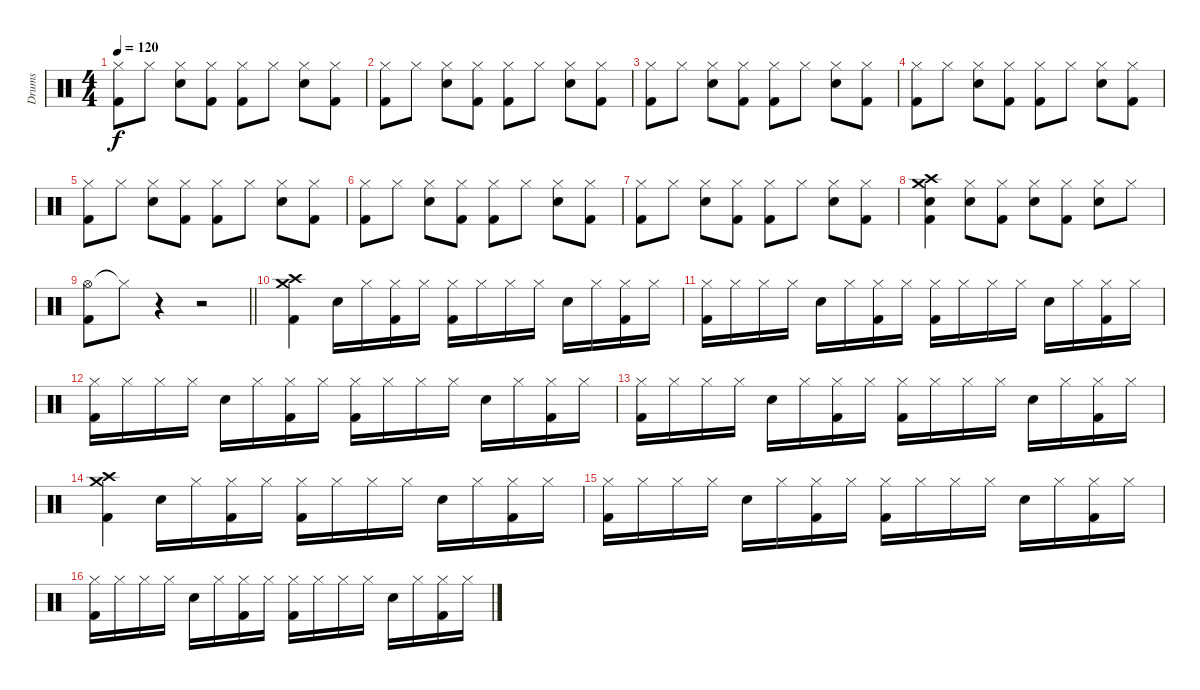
\track ("Drums" "Drums") {instrument percussion}
\staff {score}
\articulation defaults
\ts (4 4)
\tempo 120
\clef neutral
\ks c
("Hi-Hat (closed)" "Kick (hit) 2").8{dy f} "Hi-Hat (closed)".8 ("Hi-Hat (closed)" "Snare (hit) 2").8 ("Hi-Hat (closed)" "Kick (hit) 2").8 ("Hi-Hat (closed)" "Kick (hit) 2").8 "Hi-Hat (closed)".8 ("Hi-Hat (closed)" "Snare (hit) 2").8 ("Hi-Hat (closed)" "Kick (hit) 2").8 |
("Hi-Hat (closed)" "Kick (hit) 2").8 "Hi-Hat (closed)".8 ("Hi-Hat (closed)" "Snare (hit) 2").8 ("Hi-Hat (closed)" "Kick (hit) 2").8 ("Hi-Hat (closed)" "Kick (hit) 2").8 "Hi-Hat (closed)".8 ("Hi-Hat (closed)" "Snare (hit) 2").8 ("Hi-Hat (closed)" "Kick (hit) 2").8 |
("Hi-Hat (closed)" "Kick (hit) 2").8 "Hi-Hat (closed)".8 ("Hi-Hat (closed)" "Snare (hit) 2").8 ("Hi-Hat (closed)" "Kick (hit) 2").8 ("Hi-Hat (closed)" "Kick (hit) 2").8 "Hi-Hat (closed)".8 ("Hi-Hat (closed)" "Snare (hit) 2").8 ("Hi-Hat (closed)" "Kick (hit) 2").8 |
("Hi-Hat (closed)" "Kick (hit) 2").8 "Hi-Hat (closed)".8 ("Hi-Hat (closed)" "Snare (hit) 2").8 ("Hi-Hat (closed)" "Kick (hit) 2").8 ("Hi-Hat (closed)" "Kick (hit) 2").8 "Hi-Hat (closed)".8 ("Hi-Hat (closed)" "Snare (hit) 2").8 ("Hi-Hat (closed)" "Kick (hit) 2").8 |
("Hi-Hat (closed)" "Kick (hit) 2").8 "Hi-Hat (closed)".8 ("Hi-Hat (closed)" "Snare (hit) 2").8 ("Hi-Hat (closed)" "Kick (hit) 2").8 ("Hi-Hat (closed)" "Kick (hit) 2").8 "Hi-Hat (closed)".8 ("Hi-Hat (closed)" "Snare (hit) 2").8 ("Hi-Hat (closed)" "Kick (hit) 2").8 |
("Hi-Hat (closed)" "Kick (hit) 2").8 "Hi-Hat (closed)".8 ("Hi-Hat (closed)" "Snare (hit) 2").8 ("Hi-Hat (closed)" "Kick (hit) 2").8 ("Hi-Hat (closed)" "Kick (hit) 2").8 "Hi-Hat (closed)".8 ("Hi-Hat (closed)" "Snare (hit) 2").8 ("Hi-Hat (closed)" "Kick (hit) 2").8 |
("Hi-Hat (closed)" "Kick (hit) 2").8 "Hi-Hat (closed)".8 ("Hi-Hat (closed)" "Snare (hit) 2").8 ("Hi-Hat (closed)" "Kick (hit) 2").8 ("Hi-Hat (closed)" "Kick (hit) 2").8 "Hi-Hat (closed)".8 ("Hi-Hat (closed)" "Snare (hit) 2").8 ("Hi-Hat (closed)" "Kick (hit) 2").8 |
("Crash medium (hit)" "Crash high (hit)" "Snare (hit) 2" "Kick (hit) 2").4 ("Hi-Hat (closed)" "Snare (hit) 2").8 ("Hi-Hat (closed)" "Kick (hit) 2").8 ("Hi-Hat (closed)" "Snare (hit) 2").8 ("Hi-Hat (closed)" "Kick (hit) 2").8 ("Hi-Hat (closed)" "Snare (hit) 2").8 "Hi-Hat (closed)".8 |
\barLineRight lightlight
("Hi-Hat (open)" "Kick (hit) 2").8 "Hi-Hat (closed)"{t}.8 r.4 r.2 |
("Crash medium (hit)" "Crash high (hit)" "Kick (hit) 2").4 "Snare (hit) 2".16 "Hi-Hat (closed)".16 ("Hi-Hat (closed)" "Kick (hit) 2").16 "Hi-Hat (closed)".16 ("Hi-Hat (closed)" "Kick (hit) 2").16 "Hi-Hat (closed)".16 "Hi-Hat (closed)".16 "Hi-Hat (closed)".16 "Snare (hit) 2".16 "Hi-Hat (closed)".16 ("Hi-Hat (closed)" "Kick (hit) 2").16 "Hi-Hat (closed)".16 |
("Hi-Hat (closed)" "Kick (hit) 2").16 "Hi-Hat (closed)".16 "Hi-Hat (closed)".16 "Hi-Hat (closed)".16 "Snare (hit) 2".16 "Hi-Hat (closed)".16 ("Hi-Hat (closed)" "Kick (hit) 2").16 "Hi-Hat (closed)".16 ("Hi-Hat (closed)" "Kick (hit) 2").16 "Hi-Hat (closed)".16 "Hi-Hat (closed)".16 "Hi-Hat (closed)".16 "Snare (hit) 2".16 "Hi-Hat (closed)".16 ("Hi-Hat (closed)" "Kick (hit) 2").16 "Hi-Hat (closed)".16 |
("Hi-Hat (closed)" "Kick (hit) 2").16 "Hi-Hat (closed)".16 "Hi-Hat (closed)".16 "Hi-Hat (closed)".16 "Snare (hit) 2".16 "Hi-Hat (closed)".16 ("Hi-Hat (closed)" "Kick (hit) 2").16 "Hi-Hat (closed)".16 ("Hi-Hat (closed)" "Kick (hit) 2").16 "Hi-Hat (closed)".16 "Hi-Hat (closed)".16 "Hi-Hat (closed)".16 "Snare (hit) 2".16 "Hi-Hat (closed)".16 ("Hi-Hat (closed)" "Kick (hit) 2").16 "Hi-Hat (closed)".16 |
("Hi-Hat (closed)" "Kick (hit) 2").16 "Hi-Hat (closed)".16 "Hi-Hat (closed)".16 "Hi-Hat (closed)".16 "Snare (hit) 2".16 "Hi-Hat (closed)".16 ("Hi-Hat (closed)" "Kick (hit) 2").16 "Hi-Hat (closed)".16 ("Hi-Hat (closed)" "Kick (hit) 2").16 "Hi-Hat (closed)".16 "Hi-Hat (closed)".16 "Hi-Hat (closed)".16 "Snare (hit) 2".16 "Hi-Hat (closed)".16 ("Hi-Hat (closed)" "Kick (hit) 2").16 "Hi-Hat (closed)".16 |
("Crash medium (hit)" "Crash high (hit)" "Kick (hit) 2").4 "Snare (hit) 2".16 "Hi-Hat (closed)".16 ("Hi-Hat (closed)" "Kick (hit) 2").16 "Hi-Hat (closed)".16 ("Hi-Hat (closed)" "Kick (hit) 2").16 "Hi-Hat (closed)".16 "Hi-Hat (closed)".16 "Hi-Hat (closed)".16 "Snare (hit) 2".16 "Hi-Hat (closed)".16 ("Hi-Hat (closed)" "Kick (hit) 2").16 "Hi-Hat (closed)".16 |
("Hi-Hat (closed)" "Kick (hit) 2").16 "Hi-Hat (closed)".16 "Hi-Hat (closed)".16 "Hi-Hat (closed)".16 "Snare (hit) 2".16 "Hi-Hat (closed)".16 ("Hi-Hat (closed)" "Kick (hit) 2").16 "Hi-Hat (closed)".16 ("Hi-Hat (closed)" "Kick (hit) 2").16 "Hi-Hat (closed)".16 "Hi-Hat (closed)".16 "Hi-Hat (closed)".16 "Snare (hit) 2".16 "Hi-Hat (closed)".16 ("Hi-Hat (closed)" "Kick (hit) 2").16 "Hi-Hat (closed)".16 |
("Hi-Hat (closed)" "Kick (hit) 2").16 "Hi-Hat (closed)".16 "Hi-Hat (closed)".16 "Hi-Hat (closed)".16 "Snare (hit) 2".16 "Hi-Hat (closed)".16 ("Hi-Hat (closed)" "Kick (hit) 2").16 "Hi-Hat (closed)".16 ("Hi-Hat (closed)" "Kick (hit) 2").16 "Hi-Hat (closed)".16 "Hi-Hat (closed)".16 "Hi-Hat (closed)".16 "Snare (hit) 2".16 "Hi-Hat (closed)".16 ("Hi-Hat (closed)" "Kick (hit) 2").16 "Hi-Hat (closed)".16
